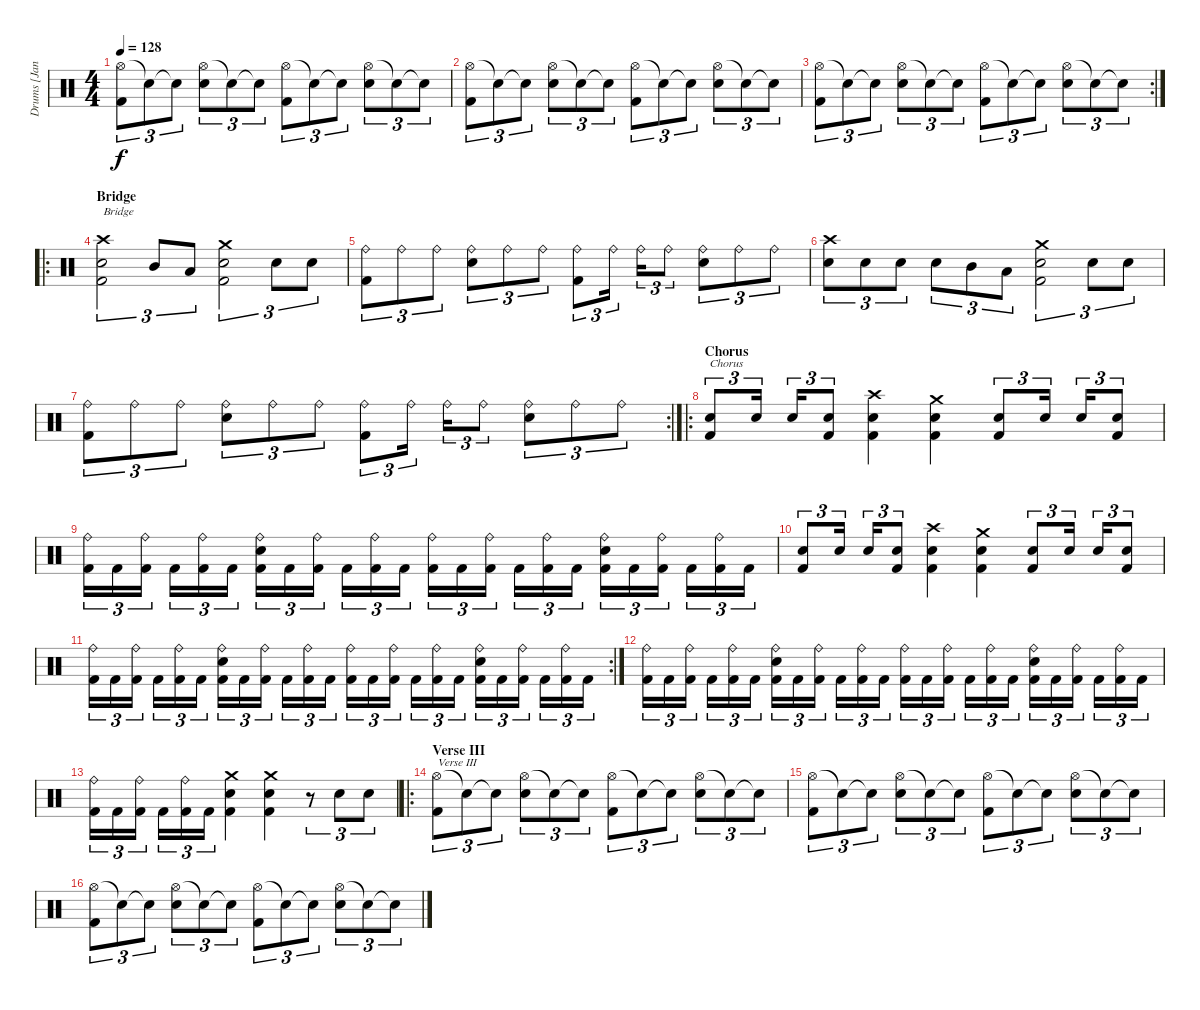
\track ("Drums [Janne Saarenpaa]" "Drums [Jan") {instrument percussion}
\staff {score}
\articulation defaults
\ts (4 4)
\tempo 128
\clef neutral
\ks c
("Hi-Hat (open)" "Kick (hit) 2").8{tu (3 2) dy f} "Snare (hit)"{t}.8{tu (3 2)} "Snare (hit)"{t}.8{tu (3 2)} ("Hi-Hat (open)" "Electric Snare (hit)").8{tu (3 2)} "Snare (hit)"{t}.8{tu (3 2)} "Snare (hit)"{t}.8{tu (3 2)} ("Hi-Hat (open)" "Kick (hit) 2").8{tu (3 2)} "Snare (hit)"{t}.8{tu (3 2)} "Snare (hit)"{t}.8{tu (3 2)} ("Hi-Hat (open)" "Electric Snare (hit)").8{tu (3 2)} "Snare (hit)"{t}.8{tu (3 2)} "Snare (hit)"{t}.8{tu (3 2)} |
("Hi-Hat (open)" "Kick (hit) 2").8{tu (3 2)} "Snare (hit)"{t}.8{tu (3 2)} "Snare (hit)"{t}.8{tu (3 2)} ("Hi-Hat (open)" "Electric Snare (hit)").8{tu (3 2)} "Snare (hit)"{t}.8{tu (3 2)} "Snare (hit)"{t}.8{tu (3 2)} ("Hi-Hat (open)" "Kick (hit) 2").8{tu (3 2)} "Snare (hit)"{t}.8{tu (3 2)} "Snare (hit)"{t}.8{tu (3 2)} ("Hi-Hat (open)" "Electric Snare (hit)").8{tu (3 2)} "Snare (hit)"{t}.8{tu (3 2)} "Snare (hit)"{t}.8{tu (3 2)} |
\rc 2
("Hi-Hat (open)" "Kick (hit) 2").8{tu (3 2)} "Snare (hit)"{t}.8{tu (3 2)} "Snare (hit)"{t}.8{tu (3 2)} ("Hi-Hat (open)" "Electric Snare (hit)").8{tu (3 2)} "Snare (hit)"{t}.8{tu (3 2)} "Snare (hit)"{t}.8{tu (3 2)} ("Hi-Hat (open)" "Kick (hit) 2").8{tu (3 2)} "Snare (hit)"{t}.8{tu (3 2)} "Snare (hit)"{t}.8{tu (3 2)} ("Hi-Hat (open)" "Electric Snare (hit)").8{tu (3 2)} "Snare (hit)"{t}.8{tu (3 2)} "Snare (hit)"{t}.8{tu (3 2)} |
\ro
\section ("" "Bridge")
("Crash high (hit)" "Electric Snare (hit)" "Kick (hit) 2").2{tu (3 2) txt "Bridge"} "Mid Tom (hit)".8{tu (3 2)} "Low Tom (hit)".8{tu (3 2)} ("Crash medium (hit)" "Electric Snare (hit)" "Kick (hit) 2").2{tu (3 2)} "Electric Snare (hit)".8{tu (3 2)} "Electric Snare (hit)".8{tu (3 2)} |
("Ride (bell)" "Kick (hit) 2").8{tu (3 2)} "Ride (bell)".8{tu (3 2)} "Ride (bell)".8{tu (3 2)} ("Ride (bell)" "Electric Snare (hit)").8{tu (3 2)} "Ride (bell)".8{tu (3 2)} "Ride (bell)".8{tu (3 2)} ("Ride (bell)" "Kick (hit) 2").8{tu (3 2)} "Ride (bell)".16{tu (3 2)} "Ride (bell)".16{tu (3 2)} "Ride (bell)".8{tu (3 2)} ("Ride (bell)" "Electric Snare (hit)").8{tu (3 2)} "Ride (bell)".8{tu (3 2)} "Ride (bell)".8{tu (3 2)} |
("Crash high (hit)" "Electric Snare (hit)").8{tu (3 2)} "Electric Snare (hit)".8{tu (3 2)} "Electric Snare (hit)".8{tu (3 2)} "Electric Snare (hit)".8{tu (3 2)} "Mid Tom (hit)".8{tu (3 2)} "Low Tom (hit)".8{tu (3 2)} ("Crash medium (hit)" "Electric Snare (hit)" "Kick (hit) 2").2{tu (3 2)} "Electric Snare (hit)".8{tu (3 2)} "Electric Snare (hit)".8{tu (3 2)} |
\rc 2
("Ride (bell)" "Kick (hit) 2").8{tu (3 2)} "Ride (bell)".8{tu (3 2)} "Ride (bell)".8{tu (3 2)} ("Ride (bell)" "Electric Snare (hit)").8{tu (3 2)} "Ride (bell)".8{tu (3 2)} "Ride (bell)".8{tu (3 2)} ("Ride (bell)" "Kick (hit) 2").8{tu (3 2)} "Ride (bell)".16{tu (3 2)} "Ride (bell)".16{tu (3 2)} "Ride (bell)".8{tu (3 2)} ("Ride (bell)" "Electric Snare (hit)").8{tu (3 2)} "Ride (bell)".8{tu (3 2)} "Ride (bell)".8{tu (3 2)} |
\ro
\section ("" "Chorus")
("Electric Snare (hit)" "Kick (hit) 2").8{tu (3 2) txt "Chorus"} "Electric Snare (hit)".16{tu (3 2)} "Electric Snare (hit)".16{tu (3 2)} ("Electric Snare (hit)" "Kick (hit) 2").8{tu (3 2)} ("Crash high (hit)" "Electric Snare (hit)" "Kick (hit) 2").4 ("Crash medium (hit)" "Electric Snare (hit)" "Kick (hit) 2").4 ("Electric Snare (hit)" "Kick (hit) 2").8{tu (3 2)} "Electric Snare (hit)".16{tu (3 2)} "Electric Snare (hit)".16{tu (3 2)} ("Electric Snare (hit)" "Kick (hit) 2").8{tu (3 2)} |
("Ride (bell)" "Kick (hit) 2").16{tu (3 2)} "Kick (hit) 2".16{tu (3 2)} ("Ride (bell)" "Kick (hit) 2").16{tu (3 2)} "Kick (hit) 2".16{tu (3 2)} ("Ride (bell)" "Kick (hit) 2").16{tu (3 2)} "Kick (hit) 2".16{tu (3 2)} ("Ride (bell)" "Electric Snare (hit)" "Kick (hit) 2").16{tu (3 2)} "Kick (hit) 2".16{tu (3 2)} ("Ride (bell)" "Kick (hit) 2").16{tu (3 2)} "Kick (hit) 2".16{tu (3 2)} ("Ride (bell)" "Kick (hit) 2").16{tu (3 2)} "Kick (hit) 2".16{tu (3 2)} ("Ride (bell)" "Kick (hit) 2").16{tu (3 2)} "Kick (hit) 2".16{tu (3 2)} ("Ride (bell)" "Kick (hit) 2").16{tu (3 2)} "Kick (hit) 2".16{tu (3 2)} ("Ride (bell)" "Kick (hit) 2").16{tu (3 2)} "Kick (hit) 2".16{tu (3 2)} ("Ride (bell)" "Electric Snare (hit)" "Kick (hit) 2").16{tu (3 2)} "Kick (hit) 2".16{tu (3 2)} ("Ride (bell)" "Kick (hit) 2").16{tu (3 2)} "Kick (hit) 2".16{tu (3 2)} ("Ride (bell)" "Kick (hit) 2").16{tu (3 2)} "Kick (hit) 2".16{tu (3 2)} |
("Electric Snare (hit)" "Kick (hit) 2").8{tu (3 2)} "Electric Snare (hit)".16{tu (3 2)} "Electric Snare (hit)".16{tu (3 2)} ("Electric Snare (hit)" "Kick (hit) 2").8{tu (3 2)} ("Crash high (hit)" "Electric Snare (hit)" "Kick (hit) 2").4 ("Crash medium (hit)" "Electric Snare (hit)" "Kick (hit) 2").4 ("Electric Snare (hit)" "Kick (hit) 2").8{tu (3 2)} "Electric Snare (hit)".16{tu (3 2)} "Electric Snare (hit)".16{tu (3 2)} ("Electric Snare (hit)" "Kick (hit) 2").8{tu (3 2)} |
\rc 2
("Ride (bell)" "Kick (hit) 2").16{tu (3 2)} "Kick (hit) 2".16{tu (3 2)} ("Ride (bell)" "Kick (hit) 2").16{tu (3 2)} "Kick (hit) 2".16{tu (3 2)} ("Ride (bell)" "Kick (hit) 2").16{tu (3 2)} "Kick (hit) 2".16{tu (3 2)} ("Ride (bell)" "Electric Snare (hit)" "Kick (hit) 2").16{tu (3 2)} "Kick (hit) 2".16{tu (3 2)} ("Ride (bell)" "Kick (hit) 2").16{tu (3 2)} "Kick (hit) 2".16{tu (3 2)} ("Ride (bell)" "Kick (hit) 2").16{tu (3 2)} "Kick (hit) 2".16{tu (3 2)} ("Ride (bell)" "Kick (hit) 2").16{tu (3 2)} "Kick (hit) 2".16{tu (3 2)} ("Ride (bell)" "Kick (hit) 2").16{tu (3 2)} "Kick (hit) 2".16{tu (3 2)} ("Ride (bell)" "Kick (hit) 2").16{tu (3 2)} "Kick (hit) 2".16{tu (3 2)} ("Ride (bell)" "Electric Snare (hit)" "Kick (hit) 2").16{tu (3 2)} "Kick (hit) 2".16{tu (3 2)} ("Ride (bell)" "Kick (hit) 2").16{tu (3 2)} "Kick (hit) 2".16{tu (3 2)} ("Ride (bell)" "Kick (hit) 2").16{tu (3 2)} "Kick (hit) 2".16{tu (3 2)} |
("Ride (bell)" "Kick (hit) 2").16{tu (3 2)} "Kick (hit) 2".16{tu (3 2)} ("Ride (bell)" "Kick (hit) 2").16{tu (3 2)} "Kick (hit) 2".16{tu (3 2)} ("Ride (bell)" "Kick (hit) 2").16{tu (3 2)} "Kick (hit) 2".16{tu (3 2)} ("Ride (bell)" "Electric Snare (hit)" "Kick (hit) 2").16{tu (3 2)} "Kick (hit) 2".16{tu (3 2)} ("Ride (bell)" "Kick (hit) 2").16{tu (3 2)} "Kick (hit) 2".16{tu (3 2)} ("Ride (bell)" "Kick (hit) 2").16{tu (3 2)} "Kick (hit) 2".16{tu (3 2)} ("Ride (bell)" "Kick (hit) 2").16{tu (3 2)} "Kick (hit) 2".16{tu (3 2)} ("Ride (bell)" "Kick (hit) 2").16{tu (3 2)} "Kick (hit) 2".16{tu (3 2)} ("Ride (bell)" "Kick (hit) 2").16{tu (3 2)} "Kick (hit) 2".16{tu (3 2)} ("Ride (bell)" "Electric Snare (hit)" "Kick (hit) 2").16{tu (3 2)} "Kick (hit) 2".16{tu (3 2)} ("Ride (bell)" "Kick (hit) 2").16{tu (3 2)} "Kick (hit) 2".16{tu (3 2)} ("Ride (bell)" "Kick (hit) 2").16{tu (3 2)} "Kick (hit) 2".16{tu (3 2)} |
("Ride (bell)" "Kick (hit) 2").16{tu (3 2)} "Kick (hit) 2".16{tu (3 2)} ("Ride (bell)" "Kick (hit) 2").16{tu (3 2)} "Kick (hit) 2".16{tu (3 2)} ("Ride (bell)" "Kick (hit) 2").16{tu (3 2)} "Kick (hit) 2".16{tu (3 2)} ("Crash medium (hit)" "Electric Snare (hit)" "Kick (hit) 2").4 ("Crash medium (hit)" "Electric Snare (hit)" "Kick (hit) 2").4 r.8{tu (3 2)} "Electric Snare (hit)".8{tu (3 2)} "Electric Snare (hit)".8{tu (3 2)} |
\ro
\section ("" "Verse III")
("Hi-Hat (open)" "Kick (hit) 2").8{tu (3 2) txt "Verse III"} "Snare (hit)"{t}.8{tu (3 2)} "Snare (hit)"{t}.8{tu (3 2)} ("Hi-Hat (open)" "Electric Snare (hit)").8{tu (3 2)} "Snare (hit)"{t}.8{tu (3 2)} "Snare (hit)"{t}.8{tu (3 2)} ("Hi-Hat (open)" "Kick (hit) 2").8{tu (3 2)} "Snare (hit)"{t}.8{tu (3 2)} "Snare (hit)"{t}.8{tu (3 2)} ("Hi-Hat (open)" "Electric Snare (hit)").8{tu (3 2)} "Snare (hit)"{t}.8{tu (3 2)} "Snare (hit)"{t}.8{tu (3 2)} |
("Hi-Hat (open)" "Kick (hit) 2").8{tu (3 2)} "Snare (hit)"{t}.8{tu (3 2)} "Snare (hit)"{t}.8{tu (3 2)} ("Hi-Hat (open)" "Electric Snare (hit)").8{tu (3 2)} "Snare (hit)"{t}.8{tu (3 2)} "Snare (hit)"{t}.8{tu (3 2)} ("Hi-Hat (open)" "Kick (hit) 2").8{tu (3 2)} "Snare (hit)"{t}.8{tu (3 2)} "Snare (hit)"{t}.8{tu (3 2)} ("Hi-Hat (open)" "Electric Snare (hit)").8{tu (3 2)} "Snare (hit)"{t}.8{tu (3 2)} "Snare (hit)"{t}.8{tu (3 2)} |
("Hi-Hat (open)" "Kick (hit) 2").8{tu (3 2)} "Snare (hit)"{t}.8{tu (3 2)} "Snare (hit)"{t}.8{tu (3 2)} ("Hi-Hat (open)" "Electric Snare (hit)").8{tu (3 2)} "Snare (hit)"{t}.8{tu (3 2)} "Snare (hit)"{t}.8{tu (3 2)} ("Hi-Hat (open)" "Kick (hit) 2").8{tu (3 2)} "Snare (hit)"{t}.8{tu (3 2)} "Snare (hit)"{t}.8{tu (3 2)} ("Hi-Hat (open)" "Electric Snare (hit)").8{tu (3 2)} "Snare (hit)"{t}.8{tu (3 2)} "Snare (hit)"{t}.8{tu (3 2)}
